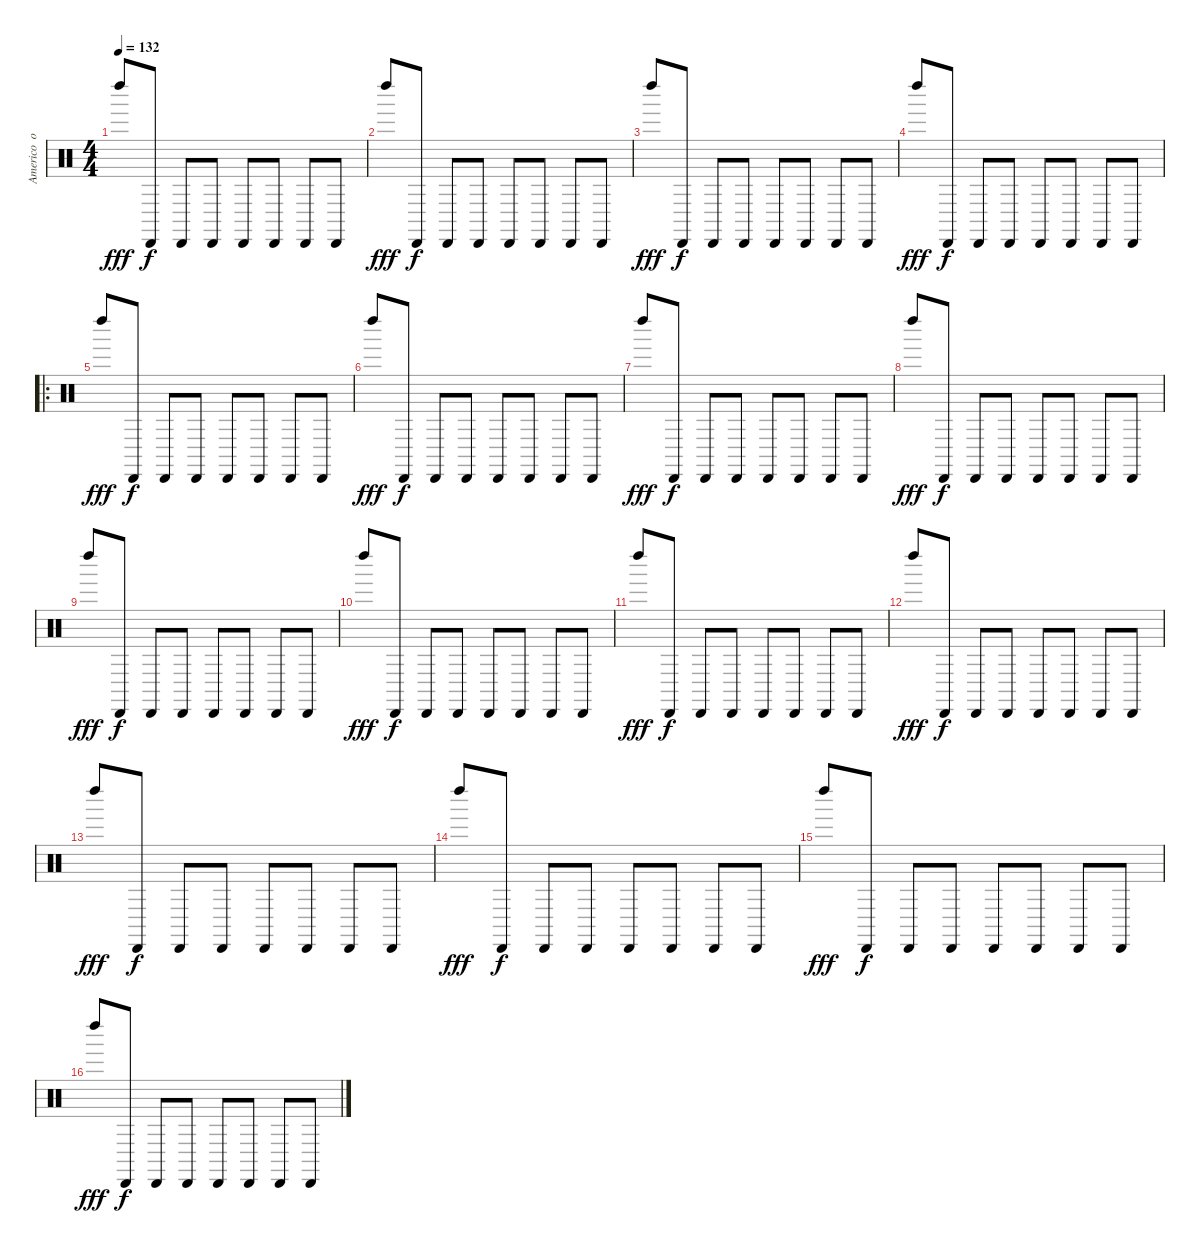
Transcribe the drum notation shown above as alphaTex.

\track ("Americo  ortega percussion" "Americo  o") {instrument percussion}
\staff {score}
\articulation defaults
\ts (4 4)
\tempo 132
\clef neutral
\ks c "Left Maraca (hit)".8{dy fff} "Cabasa (hit)".8{dy f} "Cabasa (hit)".8 "Cabasa (hit)".8 "Cabasa (hit)".8 "Cabasa (hit)".8 "Cabasa (hit)".8 "Cabasa (hit)".8
|
"Left Maraca (hit)".8{dy fff} "Cabasa (hit)".8{dy f} "Cabasa (hit)".8 "Cabasa (hit)".8 "Cabasa (hit)".8 "Cabasa (hit)".8 "Cabasa (hit)".8 "Cabasa (hit)".8 |
"Left Maraca (hit)".8{dy fff} "Cabasa (hit)".8{dy f} "Cabasa (hit)".8 "Cabasa (hit)".8 "Cabasa (hit)".8 "Cabasa (hit)".8 "Cabasa (hit)".8 "Cabasa (hit)".8 |
"Left Maraca (hit)".8{dy fff} "Cabasa (hit)".8{dy f} "Cabasa (hit)".8 "Cabasa (hit)".8 "Cabasa (hit)".8 "Cabasa (hit)".8 "Cabasa (hit)".8 "Cabasa (hit)".8 |
\ro "Left Maraca (hit)".8{dy fff} "Cabasa (hit)".8{dy f} "Cabasa (hit)".8 "Cabasa (hit)".8 "Cabasa (hit)".8 "Cabasa (hit)".8 "Cabasa (hit)".8 "Cabasa (hit)".8
|
"Left Maraca (hit)".8{dy fff} "Cabasa (hit)".8{dy f} "Cabasa (hit)".8 "Cabasa (hit)".8 "Cabasa (hit)".8 "Cabasa (hit)".8 "Cabasa (hit)".8 "Cabasa (hit)".8 |
"Left Maraca (hit)".8{dy fff} "Cabasa (hit)".8{dy f} "Cabasa (hit)".8 "Cabasa (hit)".8 "Cabasa (hit)".8 "Cabasa (hit)".8 "Cabasa (hit)".8 "Cabasa (hit)".8 |
"Left Maraca (hit)".8{dy fff} "Cabasa (hit)".8{dy f} "Cabasa (hit)".8 "Cabasa (hit)".8 "Cabasa (hit)".8 "Cabasa (hit)".8 "Cabasa (hit)".8 "Cabasa (hit)".8 |
"Left Maraca (hit)".8{dy fff} "Cabasa (hit)".8{dy f} "Cabasa (hit)".8 "Cabasa (hit)".8 "Cabasa (hit)".8 "Cabasa (hit)".8 "Cabasa (hit)".8 "Cabasa (hit)".8 |
"Left Maraca (hit)".8{dy fff} "Cabasa (hit)".8{dy f} "Cabasa (hit)".8 "Cabasa (hit)".8 "Cabasa (hit)".8 "Cabasa (hit)".8 "Cabasa (hit)".8 "Cabasa (hit)".8 |
"Left Maraca (hit)".8{dy fff} "Cabasa (hit)".8{dy f} "Cabasa (hit)".8 "Cabasa (hit)".8 "Cabasa (hit)".8 "Cabasa (hit)".8 "Cabasa (hit)".8 "Cabasa (hit)".8 |
"Left Maraca (hit)".8{dy fff} "Cabasa (hit)".8{dy f} "Cabasa (hit)".8 "Cabasa (hit)".8 "Cabasa (hit)".8 "Cabasa (hit)".8 "Cabasa (hit)".8 "Cabasa (hit)".8 |
"Left Maraca (hit)".8{dy fff} "Cabasa (hit)".8{dy f} "Cabasa (hit)".8 "Cabasa (hit)".8 "Cabasa (hit)".8 "Cabasa (hit)".8 "Cabasa (hit)".8 "Cabasa (hit)".8 |
"Left Maraca (hit)".8{dy fff} "Cabasa (hit)".8{dy f} "Cabasa (hit)".8 "Cabasa (hit)".8 "Cabasa (hit)".8 "Cabasa (hit)".8 "Cabasa (hit)".8 "Cabasa (hit)".8 |
"Left Maraca (hit)".8{dy fff} "Cabasa (hit)".8{dy f} "Cabasa (hit)".8 "Cabasa (hit)".8 "Cabasa (hit)".8 "Cabasa (hit)".8 "Cabasa (hit)".8 "Cabasa (hit)".8 |
"Left Maraca (hit)".8{dy fff} "Cabasa (hit)".8{dy f} "Cabasa (hit)".8 "Cabasa (hit)".8 "Cabasa (hit)".8 "Cabasa (hit)".8 "Cabasa (hit)".8 "Cabasa (hit)".8
